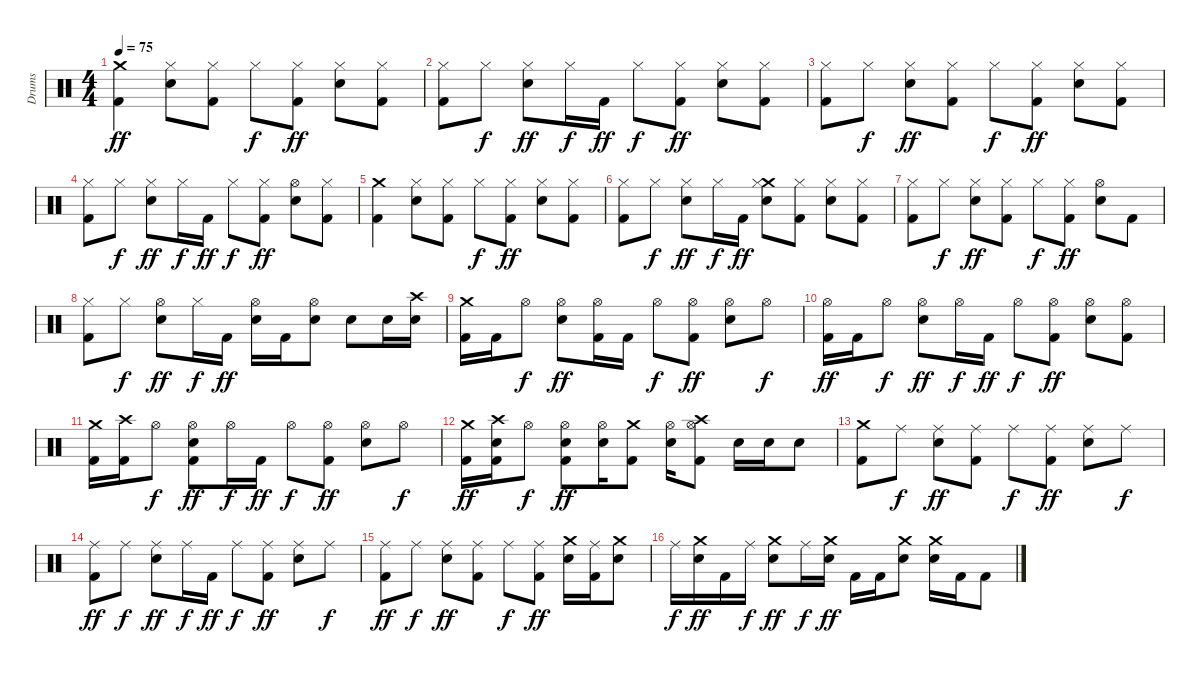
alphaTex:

\track ("Drums" "Drums") {instrument percussion}
\staff {score}
\articulation defaults
\ts (4 4)
\tempo 75
\clef neutral
\ks c
("Crash medium (hit)" "Kick (hit) 2").4{dy ff} ("Hi-Hat (closed)" "Electric Snare (hit)").8 ("Hi-Hat (closed)" "Kick (hit) 2").8 "Hi-Hat (closed)".8{dy f} ("Hi-Hat (closed)" "Kick (hit) 2").8{dy ff} ("Hi-Hat (closed)" "Electric Snare (hit)").8 ("Hi-Hat (closed)" "Kick (hit) 2").8 |
("Hi-Hat (closed)" "Kick (hit) 2").8 "Hi-Hat (closed)".8{dy f} ("Hi-Hat (closed)" "Electric Snare (hit)").8{dy ff} "Hi-Hat (closed)".16{dy f} "Kick (hit) 2".16{dy ff} "Hi-Hat (closed)".8{dy f} ("Hi-Hat (closed)" "Kick (hit) 2").8{dy ff} ("Hi-Hat (closed)" "Electric Snare (hit)").8 ("Hi-Hat (closed)" "Kick (hit) 2").8 |
("Hi-Hat (closed)" "Kick (hit) 2").8 "Hi-Hat (closed)".8{dy f} ("Hi-Hat (closed)" "Electric Snare (hit)").8{dy ff} ("Hi-Hat (closed)" "Kick (hit) 2").8 "Hi-Hat (closed)".8{dy f} ("Hi-Hat (closed)" "Kick (hit) 2").8{dy ff} ("Hi-Hat (closed)" "Electric Snare (hit)").8 ("Hi-Hat (closed)" "Kick (hit) 2").8 |
("Hi-Hat (closed)" "Kick (hit) 2").8 "Hi-Hat (closed)".8{dy f} ("Hi-Hat (closed)" "Electric Snare (hit)").8{dy ff} "Hi-Hat (closed)".16{dy f} "Kick (hit) 2".16{dy ff} "Hi-Hat (closed)".8{dy f} ("Hi-Hat (closed)" "Kick (hit) 2").8{dy ff} ("Hi-Hat (open)" "Electric Snare (hit)").8 ("Hi-Hat (closed)" "Kick (hit) 2").8 |
("Crash medium (hit)" "Kick (hit) 2").4 ("Hi-Hat (closed)" "Electric Snare (hit)").8 ("Hi-Hat (closed)" "Kick (hit) 2").8 "Hi-Hat (closed)".8{dy f} ("Hi-Hat (closed)" "Kick (hit) 2").8{dy ff} ("Hi-Hat (closed)" "Electric Snare (hit)").8 ("Hi-Hat (closed)" "Kick (hit) 2").8 |
("Hi-Hat (closed)" "Kick (hit) 2").8 "Hi-Hat (closed)".8{dy f} ("Hi-Hat (closed)" "Electric Snare (hit)").8{dy ff} "Hi-Hat (closed)".16{dy f} "Kick (hit) 2".16{dy ff} ("Crash medium (hit)" "Hi-Hat (closed)" "Electric Snare (hit)").8 ("Hi-Hat (closed)" "Kick (hit) 2").8 ("Hi-Hat (closed)" "Electric Snare (hit)").8 ("Hi-Hat (closed)" "Kick (hit) 2").8 |
("Hi-Hat (closed)" "Kick (hit) 2").8 "Hi-Hat (closed)".8{dy f} ("Hi-Hat (closed)" "Electric Snare (hit)").8{dy ff} ("Hi-Hat (closed)" "Kick (hit) 2").8 "Hi-Hat (closed)".8{dy f} ("Hi-Hat (closed)" "Kick (hit) 2").8{dy ff} ("Hi-Hat (open)" "Electric Snare (hit)").8 "Kick (hit) 2".8 |
("Hi-Hat (closed)" "Kick (hit) 2").8 "Hi-Hat (closed)".8{dy f} ("Hi-Hat (open)" "Electric Snare (hit)").8{dy ff} "Hi-Hat (closed)".16{dy f} "Kick (hit) 2".16{dy ff} ("Hi-Hat (open)" "Electric Snare (hit)").16 "Kick (hit) 2".16 ("Hi-Hat (open)" "Electric Snare (hit)").8 "Electric Snare (hit)".8 "Electric Snare (hit)".16 ("Crash high (hit)" "Electric Snare (hit)").16 |
("Crash medium (hit)" "Kick (hit) 2").16 "Kick (hit) 2".16 "Hi-Hat (open)".8{dy f} ("Hi-Hat (open)" "Electric Snare (hit)").8{dy ff} ("Hi-Hat (open)" "Kick (hit) 2").16 "Kick (hit) 2".16 "Hi-Hat (open)".8{dy f} ("Hi-Hat (open)" "Kick (hit) 2").8{dy ff} ("Hi-Hat (open)" "Electric Snare (hit)").8 "Hi-Hat (open)".8{dy f} |
("Hi-Hat (open)" "Kick (hit) 2").16{dy ff} "Kick (hit) 2".16 "Hi-Hat (open)".8{dy f} ("Hi-Hat (open)" "Electric Snare (hit)").8{dy ff} "Hi-Hat (open)".16{dy f} "Kick (hit) 2".16{dy ff} "Hi-Hat (open)".8{dy f} ("Hi-Hat (open)" "Kick (hit) 2").8{dy ff} ("Hi-Hat (open)" "Electric Snare (hit)").8 ("Hi-Hat (open)" "Kick (hit) 2").8 |
("Crash medium (hit)" "Kick (hit) 2").16 ("Crash high (hit)" "Kick (hit) 2").16 "Hi-Hat (open)".8{dy f} ("Hi-Hat (open)" "Electric Snare (hit)" "Kick (hit) 2").8{dy ff} "Hi-Hat (open)".16{dy f} "Kick (hit) 2".16{dy ff} "Hi-Hat (open)".8{dy f} ("Hi-Hat (open)" "Kick (hit) 2").8{dy ff} ("Hi-Hat (open)" "Electric Snare (hit)").8 "Hi-Hat (open)".8{dy f} |
("Crash medium (hit)" "Kick (hit) 2").16{dy ff} ("Crash high (hit)" "Electric Snare (hit)" "Kick (hit) 2").16 "Hi-Hat (open)".8{dy f} ("Hi-Hat (open)" "Electric Snare (hit)" "Kick (hit) 2").8{dy ff} ("Hi-Hat (open)" "Electric Snare (hit)").16 ("Crash medium (hit)" "Kick (hit) 2").8 ("Hi-Hat (open)" "Electric Snare (hit)").16 ("Crash high (hit)" "Hi-Hat (open)" "Kick (hit) 2").8 "Electric Snare (hit)".16 "Electric Snare (hit)".16 "Electric Snare (hit)".8 |
("Crash medium (hit)" "Kick (hit) 2").8 "Ride (middle)".8{dy f} ("Ride (middle)" "Electric Snare (hit)").8{dy ff} ("Ride (middle)" "Kick (hit) 2").8 "Ride (middle)".8{dy f} ("Ride (middle)" "Kick (hit) 2").8{dy ff} ("Ride (middle)" "Electric Snare (hit)").8 "Ride (middle)".8{dy f} |
("Ride (middle)" "Kick (hit) 2").8{dy ff} "Ride (middle)".8{dy f} ("Ride (middle)" "Electric Snare (hit)").8{dy ff} "Ride (middle)".16{dy f} "Kick (hit) 2".16{dy ff} "Ride (middle)".8{dy f} ("Ride (middle)" "Kick (hit) 2").8{dy ff} ("Ride (middle)" "Electric Snare (hit)").8 "Ride (middle)".8{dy f} |
("Ride (middle)" "Kick (hit) 2").8{dy ff} "Ride (middle)".8{dy f} ("Ride (middle)" "Electric Snare (hit)").8{dy ff} ("Ride (middle)" "Kick (hit) 2").8 "Ride (middle)".8{dy f} ("Ride (middle)" "Kick (hit) 2").8{dy ff} ("Crash medium (hit)" "Electric Snare (hit)").16 ("Ride (middle)" "Kick (hit) 2").16 ("Crash medium (hit)" "Electric Snare (hit)").8 |
"Ride (middle)".16{dy f} ("Crash medium (hit)" "Electric Snare (hit)").16{dy ff} "Kick (hit) 2".16 "Ride (middle)".16{dy f} ("Crash medium (hit)" "Electric Snare (hit)").8{dy ff} "Ride (middle)".16{dy f} ("Crash medium (hit)" "Electric Snare (hit)").16{dy ff} "Kick (hit) 2".16 "Kick (hit) 2".16 ("Crash medium (hit)" "Electric Snare (hit)").8 ("Crash medium (hit)" "Electric Snare (hit)").16 "Kick (hit) 2".16 "Kick (hit) 2".8
